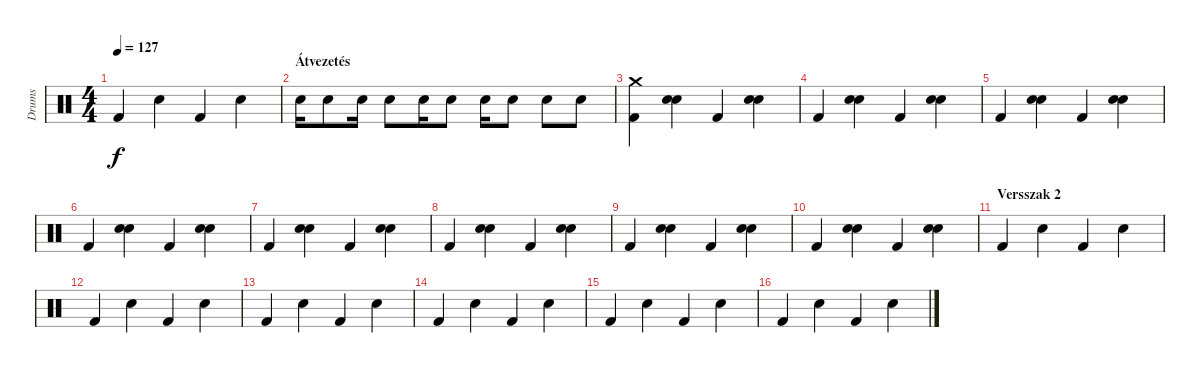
\track ("Drums" "Drums") {instrument percussion}
\staff {score}
\articulation defaults
\ts (4 4)
\tempo 127
\clef neutral
\ks c "Kick (hit) 2".4{dy f} "Electric Snare (hit)".4 "Kick (hit) 2".4 "Electric Snare (hit)".4
|
\section ("" "Átvezetés")
"Electric Snare (hit)".16 "Electric Snare (hit)".8 "Electric Snare (hit)".16 "Electric Snare (hit)".8 "Electric Snare (hit)".16 "Electric Snare (hit)".8 "Electric Snare (hit)".16 "Electric Snare (hit)".8 "Electric Snare (hit)".8 "Electric Snare (hit)".8 |
("Kick (hit) 2" "Crash medium (hit)").4 ("Electric Snare (hit)" "Hand Clap (hit)").4 "Kick (hit) 2".4 ("Electric Snare (hit)" "Hand Clap (hit)").4 |
"Kick (hit) 2".4 ("Electric Snare (hit)" "Hand Clap (hit)").4 "Kick (hit) 2".4 ("Electric Snare (hit)" "Hand Clap (hit)").4 |
"Kick (hit) 2".4 ("Electric Snare (hit)" "Hand Clap (hit)").4 "Kick (hit) 2".4 ("Electric Snare (hit)" "Hand Clap (hit)").4 |
"Kick (hit) 2".4 ("Electric Snare (hit)" "Hand Clap (hit)").4 "Kick (hit) 2".4 ("Electric Snare (hit)" "Hand Clap (hit)").4 |
"Kick (hit) 2".4 ("Electric Snare (hit)" "Hand Clap (hit)").4 "Kick (hit) 2".4 ("Electric Snare (hit)" "Hand Clap (hit)").4 |
"Kick (hit) 2".4 ("Electric Snare (hit)" "Hand Clap (hit)").4 "Kick (hit) 2".4 ("Electric Snare (hit)" "Hand Clap (hit)").4 |
"Kick (hit) 2".4 ("Electric Snare (hit)" "Hand Clap (hit)").4 "Kick (hit) 2".4 ("Electric Snare (hit)" "Hand Clap (hit)").4 |
"Kick (hit) 2".4 ("Electric Snare (hit)" "Hand Clap (hit)").4 "Kick (hit) 2".4 ("Electric Snare (hit)" "Hand Clap (hit)").4 |
\section ("" "Versszak 2")
"Kick (hit) 2".4 "Electric Snare (hit)".4 "Kick (hit) 2".4 "Electric Snare (hit)".4 |
"Kick (hit) 2".4 "Electric Snare (hit)".4 "Kick (hit) 2".4 "Electric Snare (hit)".4 |
"Kick (hit) 2".4 "Electric Snare (hit)".4 "Kick (hit) 2".4 "Electric Snare (hit)".4 |
"Kick (hit) 2".4 "Electric Snare (hit)".4 "Kick (hit) 2".4 "Electric Snare (hit)".4 |
"Kick (hit) 2".4 "Electric Snare (hit)".4 "Kick (hit) 2".4 "Electric Snare (hit)".4 |
"Kick (hit) 2".4 "Electric Snare (hit)".4 "Kick (hit) 2".4 "Electric Snare (hit)".4
